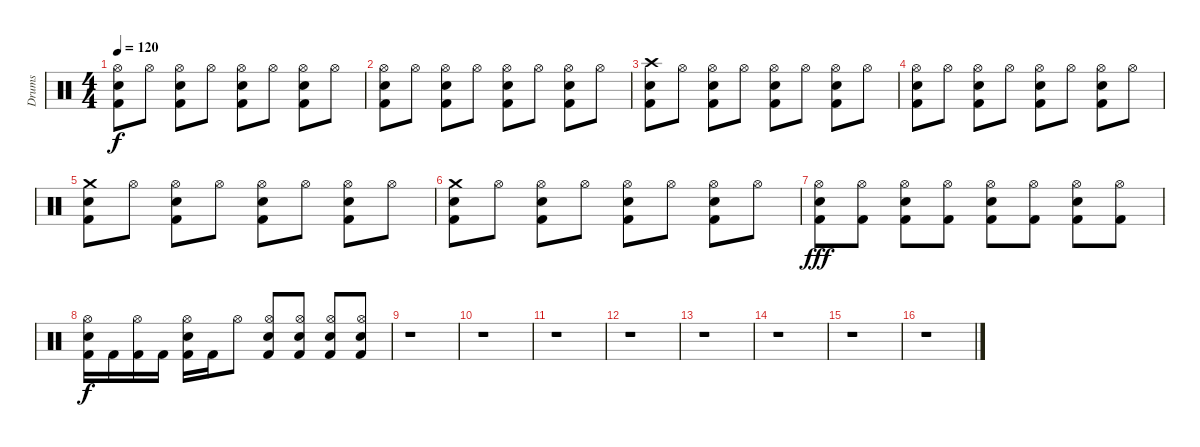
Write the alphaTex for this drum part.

\track ("Drums" "Drums") {instrument percussion}
\staff {score}
\articulation defaults
\ts (4 4)
\tempo 120
\clef neutral
\ks c
("Kick (hit) 2" "Hi-Hat (open)" "Snare (hit) 2").8{dy f} "Hi-Hat (open)".8 ("Kick (hit) 2" "Hi-Hat (open)" "Snare (hit) 2").8 "Hi-Hat (open)".8 ("Kick (hit) 2" "Hi-Hat (open)" "Snare (hit) 2").8 "Hi-Hat (open)".8 ("Kick (hit) 2" "Hi-Hat (open)" "Snare (hit) 2").8 "Hi-Hat (open)".8 |
("Kick (hit) 2" "Hi-Hat (open)" "Snare (hit) 2").8 "Hi-Hat (open)".8 ("Kick (hit) 2" "Hi-Hat (open)" "Snare (hit) 2").8 "Hi-Hat (open)".8 ("Kick (hit) 2" "Hi-Hat (open)" "Snare (hit) 2").8 "Hi-Hat (open)".8 ("Kick (hit) 2" "Hi-Hat (open)" "Snare (hit) 2").8 "Hi-Hat (open)".8 |
("Kick (hit) 2" "Crash high (hit)" "Snare (hit) 2").8 "Hi-Hat (open)".8 ("Kick (hit) 2" "Hi-Hat (open)" "Snare (hit) 2").8 "Hi-Hat (open)".8 ("Kick (hit) 2" "Hi-Hat (open)" "Snare (hit) 2").8 "Hi-Hat (open)".8 ("Kick (hit) 2" "Hi-Hat (open)" "Snare (hit) 2").8 "Hi-Hat (open)".8 |
("Kick (hit) 2" "Hi-Hat (open)" "Snare (hit) 2").8 "Hi-Hat (open)".8 ("Kick (hit) 2" "Hi-Hat (open)" "Snare (hit) 2").8 "Hi-Hat (open)".8 ("Kick (hit) 2" "Hi-Hat (open)" "Snare (hit) 2").8 "Hi-Hat (open)".8 ("Kick (hit) 2" "Hi-Hat (open)" "Snare (hit) 2").8 "Hi-Hat (open)".8 |
("Kick (hit) 2" "Crash medium (hit)" "Snare (hit) 2").8 "Hi-Hat (open)".8 ("Kick (hit) 2" "Hi-Hat (open)" "Snare (hit) 2").8 "Hi-Hat (open)".8 ("Kick (hit) 2" "Hi-Hat (open)" "Snare (hit) 2").8 "Hi-Hat (open)".8 ("Kick (hit) 2" "Hi-Hat (open)" "Snare (hit) 2").8 "Hi-Hat (open)".8 |
("Kick (hit) 2" "Crash medium (hit)" "Snare (hit) 2").8 "Hi-Hat (open)".8 ("Kick (hit) 2" "Hi-Hat (open)" "Snare (hit) 2").8 "Hi-Hat (open)".8 ("Kick (hit) 2" "Hi-Hat (open)" "Snare (hit) 2").8 "Hi-Hat (open)".8 ("Kick (hit) 2" "Hi-Hat (open)" "Snare (hit) 2").8 "Hi-Hat (open)".8 |
("Kick (hit) 2" "Hi-Hat (open)" "Snare (hit) 2").8{dy fff} ("Kick (hit) 2" "Hi-Hat (open)").8 ("Kick (hit) 2" "Hi-Hat (open)" "Snare (hit) 2").8 ("Kick (hit) 2" "Hi-Hat (open)").8 ("Kick (hit) 2" "Hi-Hat (open)" "Snare (hit) 2").8 ("Kick (hit) 2" "Hi-Hat (open)").8 ("Kick (hit) 2" "Hi-Hat (open)" "Snare (hit) 2").8 ("Kick (hit) 2" "Hi-Hat (open)").8 |
("Kick (hit) 2" "Hi-Hat (open)" "Snare (hit) 2").16{dy f} "Kick (hit) 2".16 ("Kick (hit) 2" "Hi-Hat (open)").16 "Kick (hit) 2".16 ("Kick (hit) 2" "Hi-Hat (open)" "Snare (hit) 2").16 "Kick (hit) 2".16 "Hi-Hat (open)".8 ("Kick (hit) 2" "Hi-Hat (open)" "Snare (hit) 2").8 ("Kick (hit) 2" "Hi-Hat (open)" "Snare (hit) 2").8 ("Kick (hit) 2" "Hi-Hat (open)" "Snare (hit) 2").8 ("Kick (hit) 2" "Hi-Hat (open)" "Snare (hit) 2").8 |
r.1 |
r.1 |
r.1 |
r.1 |
r.1 |
r.1 |
r.1 |
r.1
